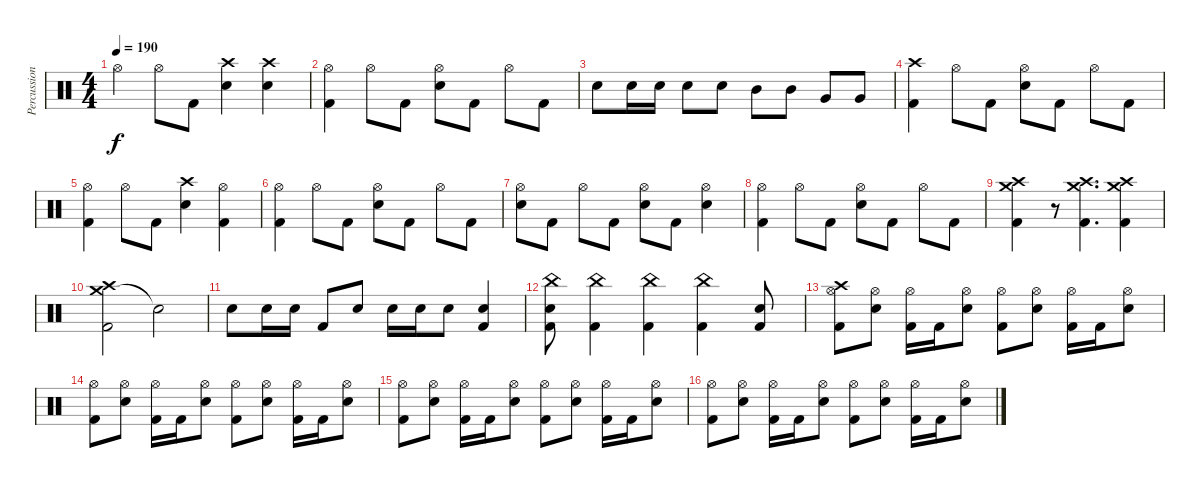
\track ("Percussion" "Percussion") {instrument percussion}
\staff {score}
\articulation defaults
\ts (4 4)
\tempo 190
\clef neutral
\ks c "Hi-Hat (open)".4{dy f} "Hi-Hat (open)".8 "Kick (hit) 2".8
("Crash high (hit)" "Snare (hit) 2").4 ("Crash high (hit)" "Snare (hit) 2").4 |
("Hi-Hat (open)" "Kick (hit) 2").4 "Hi-Hat (open)".8 "Kick (hit) 2".8 ("Hi-Hat (open)" "Snare (hit) 2").8 "Kick (hit) 2".8 "Hi-Hat (open)".8 "Kick (hit) 2".8 |
"Snare (hit) 2".8 "Snare (hit) 2".16 "Snare (hit) 2".16 "Snare (hit) 2".8 "Snare (hit) 2".8 "Mid Tom (hit)".8 "Mid Tom (hit)".8 "Very Low Tom (hit)".8 "Very Low Tom (hit)".8 |
("Crash high (hit)" "Kick (hit) 2").4 "Hi-Hat (open)".8 "Kick (hit) 2".8 ("Hi-Hat (open)" "Snare (hit) 2").8 "Kick (hit) 2".8 "Hi-Hat (open)".8 "Kick (hit) 2".8 |
("Hi-Hat (open)" "Kick (hit) 2").4 "Hi-Hat (open)".8 "Kick (hit) 2".8 ("Crash high (hit)" "Snare (hit) 2").4 ("Hi-Hat (open)" "Kick (hit) 2").4 |
("Hi-Hat (open)" "Kick (hit) 2").4 "Hi-Hat (open)".8 "Kick (hit) 2".8 ("Hi-Hat (open)" "Snare (hit) 2").8 "Kick (hit) 2".8 "Hi-Hat (open)".8 "Kick (hit) 2".8 |
("Hi-Hat (open)" "Snare (hit) 2").8 "Kick (hit) 2".8 "Hi-Hat (open)".8 "Kick (hit) 2".8 ("Hi-Hat (open)" "Snare (hit) 2").8 "Kick (hit) 2".8 ("Hi-Hat (open)" "Snare (hit) 2").4 |
("Hi-Hat (open)" "Kick (hit) 2").4 "Hi-Hat (open)".8 "Kick (hit) 2".8 ("Hi-Hat (open)" "Snare (hit) 2").8 "Kick (hit) 2".8 "Hi-Hat (open)".8 "Kick (hit) 2".8 |
("Crash medium (hit)" "Crash high (hit)" "Kick (hit) 2").4 r.8 ("Crash medium (hit)" "Crash high (hit)" "Kick (hit) 2").4{d} ("Crash medium (hit)" "Crash high (hit)" "Kick (hit) 2").4 |
("Crash medium (hit)" "Crash high (hit)" "Kick (hit) 2").2 "Snare (hit)"{t}.2 |
"Snare (hit) 2".8 "Snare (hit) 2".16 "Snare (hit) 2".16 "Kick (hit) 2".8 "Snare (hit) 2".8 "Snare (hit) 2".16 "Snare (hit) 2".16 "Snare (hit) 2".8 ("Snare (hit) 2" "Kick (hit) 2").4 |
("China (hit)" "Snare (hit) 2" "Kick (hit) 2").8 ("China (hit)" "Kick (hit) 2").4 ("China (hit)" "Kick (hit) 2").4 ("China (hit)" "Kick (hit) 2").4 ("Snare (hit) 2" "Kick (hit) 2").8 |
("Crash high (hit)" "Hi-Hat (open)" "Kick (hit) 2").8 ("Hi-Hat (open)" "Snare (hit) 2").8 ("Hi-Hat (open)" "Kick (hit) 2").16 "Kick (hit) 2".16 ("Hi-Hat (open)" "Snare (hit) 2").8 ("Hi-Hat (open)" "Kick (hit) 2").8 ("Hi-Hat (open)" "Snare (hit) 2").8 ("Hi-Hat (open)" "Kick (hit) 2").16 "Kick (hit) 2".16 ("Hi-Hat (open)" "Snare (hit) 2").8 |
("Hi-Hat (open)" "Kick (hit) 2").8 ("Hi-Hat (open)" "Snare (hit) 2").8 ("Hi-Hat (open)" "Kick (hit) 2").16 "Kick (hit) 2".16 ("Hi-Hat (open)" "Snare (hit) 2").8 ("Hi-Hat (open)" "Kick (hit) 2").8 ("Hi-Hat (open)" "Snare (hit) 2").8 ("Hi-Hat (open)" "Kick (hit) 2").16 "Kick (hit) 2".16 ("Hi-Hat (open)" "Snare (hit) 2").8 |
("Hi-Hat (open)" "Kick (hit) 2").8 ("Hi-Hat (open)" "Snare (hit) 2").8 ("Hi-Hat (open)" "Kick (hit) 2").16 "Kick (hit) 2".16 ("Hi-Hat (open)" "Snare (hit) 2").8 ("Hi-Hat (open)" "Kick (hit) 2").8 ("Hi-Hat (open)" "Snare (hit) 2").8 ("Hi-Hat (open)" "Kick (hit) 2").16 "Kick (hit) 2".16 ("Hi-Hat (open)" "Snare (hit) 2").8 |
("Hi-Hat (open)" "Kick (hit) 2").8 ("Hi-Hat (open)" "Snare (hit) 2").8 ("Hi-Hat (open)" "Kick (hit) 2").16 "Kick (hit) 2".16 ("Hi-Hat (open)" "Snare (hit) 2").8 ("Hi-Hat (open)" "Kick (hit) 2").8 ("Hi-Hat (open)" "Snare (hit) 2").8 ("Hi-Hat (open)" "Kick (hit) 2").16 "Kick (hit) 2".16 ("Hi-Hat (open)" "Snare (hit) 2").8
